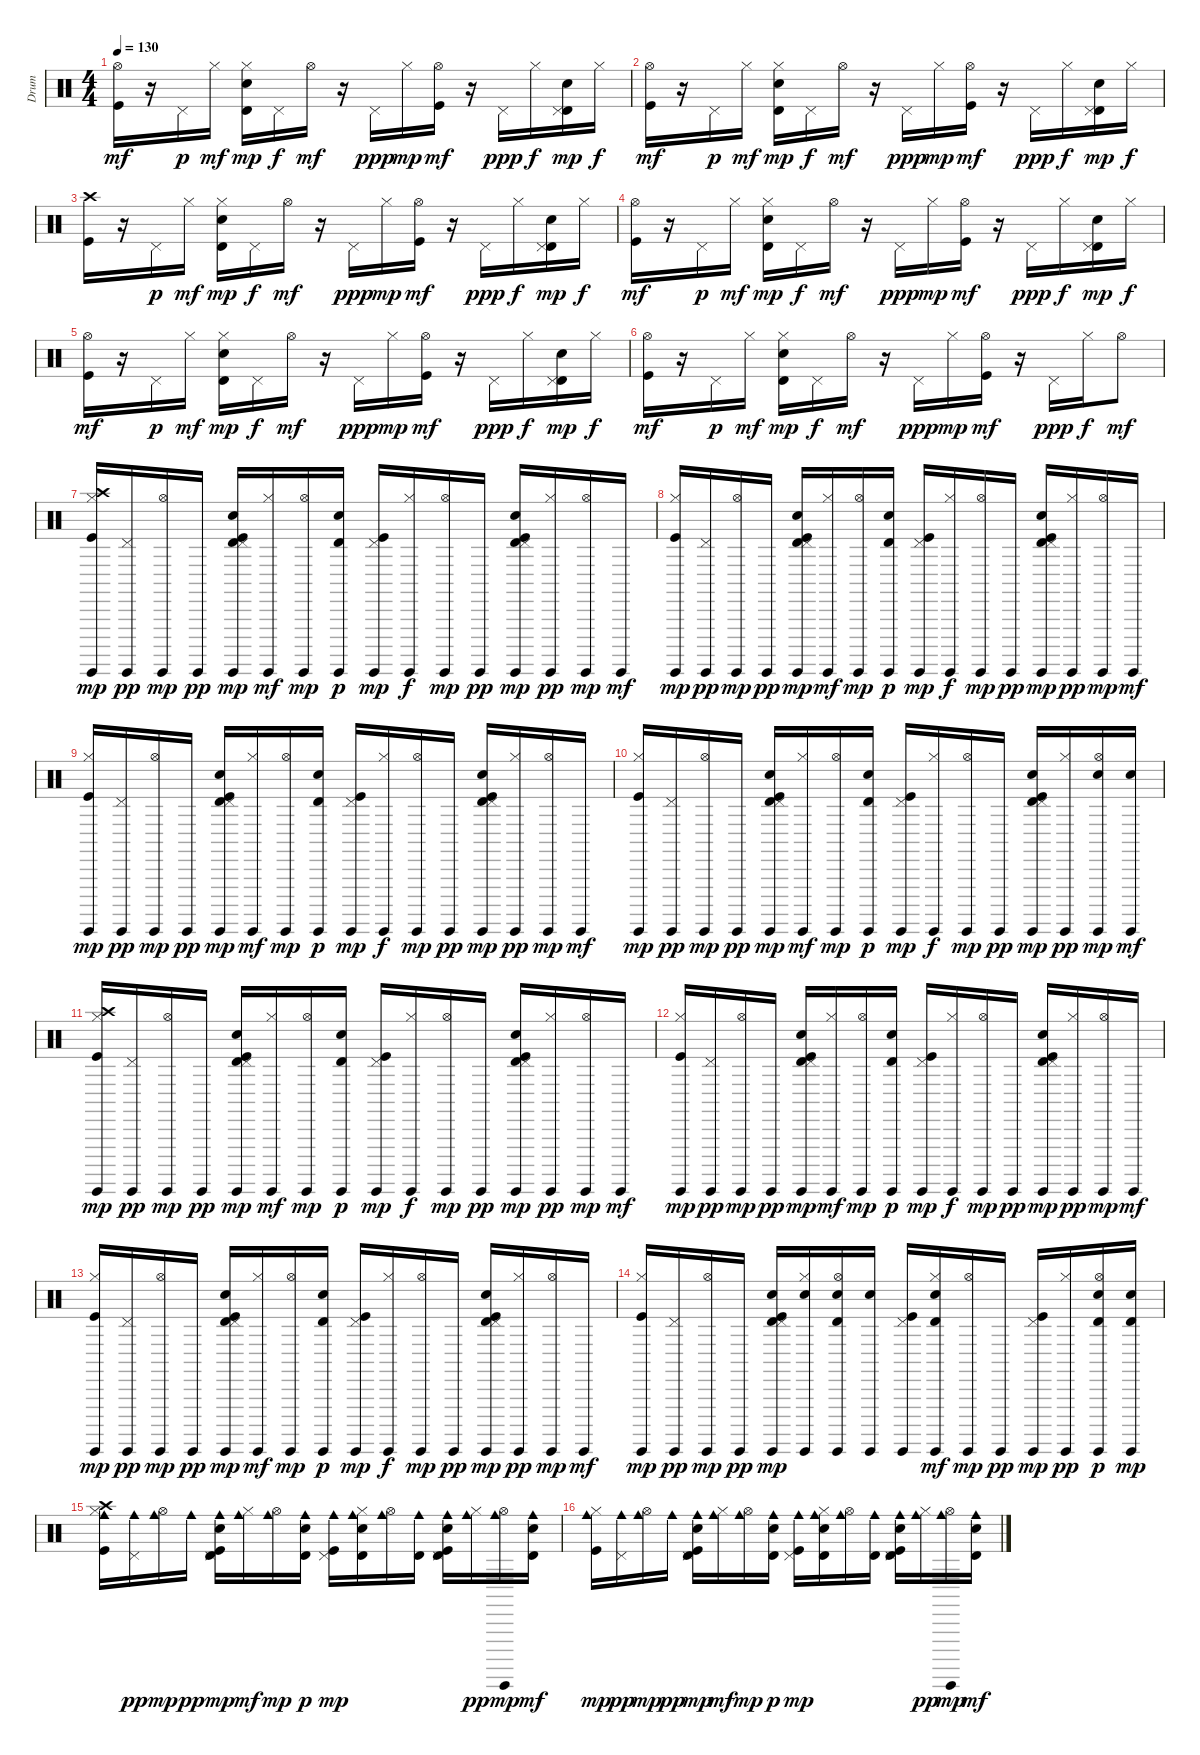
\track ("Drum" "Drum") {instrument percussion}
\staff {score}
\articulation defaults
\ts (4 4)
\tempo 130
\clef neutral
\ks c
("Hi-Hat (open)" "Kick (hit)").16{dy mf} r.16 "Pedal Hi-Hat (hit)".16{dy p} "Hi-Hat (closed)".16{dy mf} ("Timbale high (hit)" "Electric Snare (hit)" "Hi-Hat (closed)").16{dy mp} "Pedal Hi-Hat (hit)".16{dy f} "Hi-Hat (open)".16{dy mf} r.16 "Pedal Hi-Hat (hit)".16{dy ppp} "Hi-Hat (closed)".16{dy mp} ("Hi-Hat (open)" "Kick (hit)").16{dy mf} r.16 "Pedal Hi-Hat (hit)".16{dy ppp} "Hi-Hat (closed)".16{dy f} ("Timbale high (hit)" "Electric Snare (hit)" "Pedal Hi-Hat (hit)").16{dy mp} "Hi-Hat (closed)".16{dy f} |
("Hi-Hat (open)" "Kick (hit)").16{dy mf} r.16 "Pedal Hi-Hat (hit)".16{dy p} "Hi-Hat (closed)".16{dy mf} ("Timbale high (hit)" "Electric Snare (hit)" "Hi-Hat (closed)").16{dy mp} "Pedal Hi-Hat (hit)".16{dy f} "Hi-Hat (open)".16{dy mf} r.16 "Pedal Hi-Hat (hit)".16{dy ppp} "Hi-Hat (closed)".16{dy mp} ("Hi-Hat (open)" "Kick (hit)").16{dy mf} r.16 "Pedal Hi-Hat (hit)".16{dy ppp} "Hi-Hat (closed)".16{dy f} ("Timbale high (hit)" "Electric Snare (hit)" "Pedal Hi-Hat (hit)").16{dy mp} "Hi-Hat (closed)".16{dy f} |
("Crash high (hit)" "Kick (hit)").16 r.16 "Pedal Hi-Hat (hit)".16{dy p} "Hi-Hat (closed)".16{dy mf} ("Timbale high (hit)" "Electric Snare (hit)" "Hi-Hat (closed)").16{dy mp} "Pedal Hi-Hat (hit)".16{dy f} "Hi-Hat (open)".16{dy mf} r.16 "Pedal Hi-Hat (hit)".16{dy ppp} "Hi-Hat (closed)".16{dy mp} ("Hi-Hat (open)" "Kick (hit)").16{dy mf} r.16 "Pedal Hi-Hat (hit)".16{dy ppp} "Hi-Hat (closed)".16{dy f} ("Timbale high (hit)" "Electric Snare (hit)" "Pedal Hi-Hat (hit)").16{dy mp} "Hi-Hat (closed)".16{dy f} |
("Hi-Hat (open)" "Kick (hit)").16{dy mf} r.16 "Pedal Hi-Hat (hit)".16{dy p} "Hi-Hat (closed)".16{dy mf} ("Timbale high (hit)" "Electric Snare (hit)" "Hi-Hat (closed)").16{dy mp} "Pedal Hi-Hat (hit)".16{dy f} "Hi-Hat (open)".16{dy mf} r.16 "Pedal Hi-Hat (hit)".16{dy ppp} "Hi-Hat (closed)".16{dy mp} ("Hi-Hat (open)" "Kick (hit)").16{dy mf} r.16 "Pedal Hi-Hat (hit)".16{dy ppp} "Hi-Hat (closed)".16{dy f} ("Timbale high (hit)" "Electric Snare (hit)" "Pedal Hi-Hat (hit)").16{dy mp} "Hi-Hat (closed)".16{dy f} |
("Hi-Hat (open)" "Kick (hit)").16{dy mf} r.16 "Pedal Hi-Hat (hit)".16{dy p} "Hi-Hat (closed)".16{dy mf} ("Timbale high (hit)" "Electric Snare (hit)" "Hi-Hat (closed)").16{dy mp} "Pedal Hi-Hat (hit)".16{dy f} "Hi-Hat (open)".16{dy mf} r.16 "Pedal Hi-Hat (hit)".16{dy ppp} "Hi-Hat (closed)".16{dy mp} ("Hi-Hat (open)" "Kick (hit)").16{dy mf} r.16 "Pedal Hi-Hat (hit)".16{dy ppp} "Hi-Hat (closed)".16{dy f} ("Timbale high (hit)" "Electric Snare (hit)" "Pedal Hi-Hat (hit)").16{dy mp} "Hi-Hat (closed)".16{dy f} |
("Hi-Hat (open)" "Kick (hit)").16{dy mf} r.16 "Pedal Hi-Hat (hit)".16{dy p} "Hi-Hat (closed)".16{dy mf} ("Timbale high (hit)" "Electric Snare (hit)" "Hi-Hat (closed)").16{dy mp} "Pedal Hi-Hat (hit)".16{dy f} "Hi-Hat (open)".16{dy mf} r.16 "Pedal Hi-Hat (hit)".16{dy ppp} "Hi-Hat (closed)".16{dy mp} ("Hi-Hat (open)" "Kick (hit)").16{dy mf} r.16 "Pedal Hi-Hat (hit)".16{dy ppp} "Hi-Hat (closed)".16{dy f} "Hi-Hat (open)".8{dy mf} |
("Guiro (hit)" "Crash high (hit)" "Hi-Hat (closed)" "Kick (hit)").16{dy mp} ("Guiro (hit)" "Pedal Hi-Hat (hit)").16{dy pp} ("Guiro (hit)" "Hi-Hat (open)").16{dy mp} "Guiro (hit)".16{dy pp} ("Guiro (hit)" "Electric Snare (hit)" "Timbale high (hit)" "Pedal Hi-Hat (hit)" "Kick (hit)").16{dy mp} ("Guiro (hit)" "Hi-Hat (closed)").16{dy mf} ("Guiro (hit)" "Hi-Hat (open)").16{dy mp} ("Guiro (hit)" "Electric Snare (hit)" "Timbale high (hit)").16{dy p} ("Guiro (hit)" "Pedal Hi-Hat (hit)" "Kick (hit)").16{dy mp} ("Guiro (hit)" "Hi-Hat (closed)").16{dy f} ("Guiro (hit)" "Hi-Hat (open)").16{dy mp} "Guiro (hit)".16{dy pp} ("Guiro (hit)" "Electric Snare (hit)" "Timbale high (hit)" "Pedal Hi-Hat (hit)" "Kick (hit)").16{dy mp} ("Guiro (hit)" "Hi-Hat (closed)").16{dy pp} ("Guiro (hit)" "Hi-Hat (open)").16{dy mp} "Guiro (hit)".16{dy mf} |
("Guiro (hit)" "Hi-Hat (closed)" "Kick (hit)").16{dy mp} ("Guiro (hit)" "Pedal Hi-Hat (hit)").16{dy pp} ("Guiro (hit)" "Hi-Hat (open)").16{dy mp} "Guiro (hit)".16{dy pp} ("Guiro (hit)" "Electric Snare (hit)" "Timbale high (hit)" "Pedal Hi-Hat (hit)" "Kick (hit)").16{dy mp} ("Guiro (hit)" "Hi-Hat (closed)").16{dy mf} ("Guiro (hit)" "Hi-Hat (open)").16{dy mp} ("Guiro (hit)" "Electric Snare (hit)" "Timbale high (hit)").16{dy p} ("Guiro (hit)" "Pedal Hi-Hat (hit)" "Kick (hit)").16{dy mp} ("Guiro (hit)" "Hi-Hat (closed)").16{dy f} ("Guiro (hit)" "Hi-Hat (open)").16{dy mp} "Guiro (hit)".16{dy pp} ("Guiro (hit)" "Electric Snare (hit)" "Timbale high (hit)" "Pedal Hi-Hat (hit)" "Kick (hit)").16{dy mp} ("Guiro (hit)" "Hi-Hat (closed)").16{dy pp} ("Guiro (hit)" "Hi-Hat (open)").16{dy mp} "Guiro (hit)".16{dy mf} |
("Guiro (hit)" "Hi-Hat (closed)" "Kick (hit)").16{dy mp} ("Guiro (hit)" "Pedal Hi-Hat (hit)").16{dy pp} ("Guiro (hit)" "Hi-Hat (open)").16{dy mp} "Guiro (hit)".16{dy pp} ("Guiro (hit)" "Electric Snare (hit)" "Timbale high (hit)" "Pedal Hi-Hat (hit)" "Kick (hit)").16{dy mp} ("Guiro (hit)" "Hi-Hat (closed)").16{dy mf} ("Guiro (hit)" "Hi-Hat (open)").16{dy mp} ("Guiro (hit)" "Electric Snare (hit)" "Timbale high (hit)").16{dy p} ("Guiro (hit)" "Pedal Hi-Hat (hit)" "Kick (hit)").16{dy mp} ("Guiro (hit)" "Hi-Hat (closed)").16{dy f} ("Guiro (hit)" "Hi-Hat (open)").16{dy mp} "Guiro (hit)".16{dy pp} ("Guiro (hit)" "Electric Snare (hit)" "Timbale high (hit)" "Pedal Hi-Hat (hit)" "Kick (hit)").16{dy mp} ("Guiro (hit)" "Hi-Hat (closed)").16{dy pp} ("Guiro (hit)" "Hi-Hat (open)").16{dy mp} "Guiro (hit)".16{dy mf} |
("Guiro (hit)" "Hi-Hat (closed)" "Kick (hit)").16{dy mp} ("Guiro (hit)" "Pedal Hi-Hat (hit)").16{dy pp} ("Guiro (hit)" "Hi-Hat (open)").16{dy mp} "Guiro (hit)".16{dy pp} ("Guiro (hit)" "Electric Snare (hit)" "Timbale high (hit)" "Pedal Hi-Hat (hit)" "Kick (hit)").16{dy mp} ("Guiro (hit)" "Hi-Hat (closed)").16{dy mf} ("Guiro (hit)" "Hi-Hat (open)").16{dy mp} ("Guiro (hit)" "Electric Snare (hit)" "Timbale high (hit)").16{dy p} ("Guiro (hit)" "Pedal Hi-Hat (hit)" "Kick (hit)").16{dy mp} ("Guiro (hit)" "Hi-Hat (closed)").16{dy f} ("Guiro (hit)" "Hi-Hat (open)").16{dy mp} "Guiro (hit)".16{dy pp} ("Guiro (hit)" "Electric Snare (hit)" "Timbale high (hit)" "Pedal Hi-Hat (hit)" "Kick (hit)").16{dy mp} ("Guiro (hit)" "Hi-Hat (closed)").16{dy pp} ("Guiro (hit)" "Electric Snare (hit)" "Hi-Hat (open)").16{dy mp} ("Guiro (hit)" "Electric Snare (hit)").16{dy mf} |
("Guiro (hit)" "Crash high (hit)" "Hi-Hat (closed)" "Kick (hit)").16{dy mp} ("Guiro (hit)" "Pedal Hi-Hat (hit)").16{dy pp} ("Guiro (hit)" "Hi-Hat (open)").16{dy mp} "Guiro (hit)".16{dy pp} ("Guiro (hit)" "Electric Snare (hit)" "Timbale high (hit)" "Pedal Hi-Hat (hit)" "Kick (hit)").16{dy mp} ("Guiro (hit)" "Hi-Hat (closed)").16{dy mf} ("Guiro (hit)" "Hi-Hat (open)").16{dy mp} ("Guiro (hit)" "Electric Snare (hit)" "Timbale high (hit)").16{dy p} ("Guiro (hit)" "Pedal Hi-Hat (hit)" "Kick (hit)").16{dy mp} ("Guiro (hit)" "Hi-Hat (closed)").16{dy f} ("Guiro (hit)" "Hi-Hat (open)").16{dy mp} "Guiro (hit)".16{dy pp} ("Guiro (hit)" "Electric Snare (hit)" "Timbale high (hit)" "Pedal Hi-Hat (hit)" "Kick (hit)").16{dy mp} ("Guiro (hit)" "Hi-Hat (closed)").16{dy pp} ("Guiro (hit)" "Hi-Hat (open)").16{dy mp} "Guiro (hit)".16{dy mf} |
("Guiro (hit)" "Hi-Hat (closed)" "Kick (hit)").16{dy mp} ("Guiro (hit)" "Pedal Hi-Hat (hit)").16{dy pp} ("Guiro (hit)" "Hi-Hat (open)").16{dy mp} "Guiro (hit)".16{dy pp} ("Guiro (hit)" "Electric Snare (hit)" "Timbale high (hit)" "Pedal Hi-Hat (hit)" "Kick (hit)").16{dy mp} ("Guiro (hit)" "Hi-Hat (closed)").16{dy mf} ("Guiro (hit)" "Hi-Hat (open)").16{dy mp} ("Guiro (hit)" "Electric Snare (hit)" "Timbale high (hit)").16{dy p} ("Guiro (hit)" "Pedal Hi-Hat (hit)" "Kick (hit)").16{dy mp} ("Guiro (hit)" "Hi-Hat (closed)").16{dy f} ("Guiro (hit)" "Hi-Hat (open)").16{dy mp} "Guiro (hit)".16{dy pp} ("Guiro (hit)" "Electric Snare (hit)" "Timbale high (hit)" "Pedal Hi-Hat (hit)" "Kick (hit)").16{dy mp} ("Guiro (hit)" "Hi-Hat (closed)").16{dy pp} ("Guiro (hit)" "Hi-Hat (open)").16{dy mp} "Guiro (hit)".16{dy mf} |
("Guiro (hit)" "Hi-Hat (closed)" "Kick (hit)").16{dy mp} ("Guiro (hit)" "Pedal Hi-Hat (hit)").16{dy pp} ("Guiro (hit)" "Hi-Hat (open)").16{dy mp} "Guiro (hit)".16{dy pp} ("Guiro (hit)" "Electric Snare (hit)" "Timbale high (hit)" "Pedal Hi-Hat (hit)" "Kick (hit)").16{dy mp} ("Guiro (hit)" "Hi-Hat (closed)").16{dy mf} ("Guiro (hit)" "Hi-Hat (open)").16{dy mp} ("Guiro (hit)" "Electric Snare (hit)" "Timbale high (hit)").16{dy p} ("Guiro (hit)" "Pedal Hi-Hat (hit)" "Kick (hit)").16{dy mp} ("Guiro (hit)" "Hi-Hat (closed)").16{dy f} ("Guiro (hit)" "Hi-Hat (open)").16{dy mp} "Guiro (hit)".16{dy pp} ("Guiro (hit)" "Electric Snare (hit)" "Timbale high (hit)" "Pedal Hi-Hat (hit)" "Kick (hit)").16{dy mp} ("Guiro (hit)" "Hi-Hat (closed)").16{dy pp} ("Guiro (hit)" "Hi-Hat (open)").16{dy mp} "Guiro (hit)".16{dy mf} |
("Guiro (hit)" "Hi-Hat (closed)" "Kick (hit)").16{dy mp} ("Guiro (hit)" "Pedal Hi-Hat (hit)").16{dy pp} ("Guiro (hit)" "Hi-Hat (open)").16{dy mp} "Guiro (hit)".16{dy pp} ("Guiro (hit)" "Electric Snare (hit)" "Timbale high (hit)" "Pedal Hi-Hat (hit)" "Kick (hit)").16{dy mp} ("Guiro (hit)" "Electric Snare (hit)" "Hi-Hat (closed)").16 ("Guiro (hit)" "Electric Snare (hit)" "Timbale high (hit)" "Hi-Hat (open)").16 ("Guiro (hit)" "Electric Snare (hit)").16 ("Guiro (hit)" "Pedal Hi-Hat (hit)" "Kick (hit)").16 ("Guiro (hit)" "Electric Snare (hit)" "Timbale high (hit)" "Hi-Hat (closed)").16{dy mf} ("Guiro (hit)" "Hi-Hat (open)").16{dy mp} "Guiro (hit)".16{dy pp} ("Guiro (hit)" "Pedal Hi-Hat (hit)" "Kick (hit)").16{dy mp} ("Guiro (hit)" "Hi-Hat (closed)").16{dy pp} ("Guiro (hit)" "Electric Snare (hit)" "Timbale high (hit)" "Hi-Hat (open)").16{dy p} ("Guiro (hit)" "Electric Snare (hit)" "Timbale high (hit)").16{dy mp} |
("Crash high (hit)" "Cowbell medium (hit)" "Hi-Hat (closed)" "Kick (hit)").16 ("Cowbell medium (hit)" "Pedal Hi-Hat (hit)").16{dy pp} ("Cowbell medium (hit)" "Hi-Hat (open)").16{dy mp} "Cowbell medium (hit)".16{dy pp} ("Cowbell medium (hit)" "Electric Snare (hit)" "Timbale high (hit)" "Pedal Hi-Hat (hit)" "Kick (hit)").16{dy mp} ("Cowbell medium (hit)" "Hi-Hat (closed)").16{dy mf} ("Cowbell medium (hit)" "Hi-Hat (open)").16{dy mp} ("Cowbell medium (hit)" "Electric Snare (hit)" "Timbale high (hit)").16{dy p} ("Cowbell medium (hit)" "Pedal Hi-Hat (hit)" "Kick (hit)").16{dy mp} ("Cowbell medium (hit)" "Electric Snare (hit)" "Timbale high (hit)" "Hi-Hat (closed)").16 ("Cowbell medium (hit)" "Hi-Hat (open)").16 ("Cowbell medium (hit)" "Timbale high (hit)").16 ("Cowbell medium (hit)" "Electric Snare (hit)" "Timbale high (hit)" "Pedal Hi-Hat (hit)" "Kick (hit)").16 ("Cowbell medium (hit)" "Hi-Hat (closed)").16{dy pp} ("Cowbell medium (hit)" "Guiro (hit)" "Hi-Hat (open)").16{dy mp} ("Cowbell medium (hit)" "Electric Snare (hit)" "Timbale high (hit)").16{dy mf} |
("Cowbell medium (hit)" "Hi-Hat (closed)" "Kick (hit)").16{dy mp} ("Cowbell medium (hit)" "Pedal Hi-Hat (hit)").16{dy pp} ("Cowbell medium (hit)" "Hi-Hat (open)").16{dy mp} "Cowbell medium (hit)".16{dy pp} ("Cowbell medium (hit)" "Electric Snare (hit)" "Timbale high (hit)" "Pedal Hi-Hat (hit)" "Kick (hit)").16{dy mp} ("Cowbell medium (hit)" "Hi-Hat (closed)").16{dy mf} ("Cowbell medium (hit)" "Hi-Hat (open)").16{dy mp} ("Cowbell medium (hit)" "Electric Snare (hit)" "Timbale high (hit)").16{dy p} ("Cowbell medium (hit)" "Pedal Hi-Hat (hit)" "Kick (hit)").16{dy mp} ("Cowbell medium (hit)" "Electric Snare (hit)" "Timbale high (hit)" "Hi-Hat (closed)").16 ("Cowbell medium (hit)" "Hi-Hat (open)").16 ("Cowbell medium (hit)" "Timbale high (hit)").16 ("Cowbell medium (hit)" "Electric Snare (hit)" "Timbale high (hit)" "Pedal Hi-Hat (hit)" "Kick (hit)").16 ("Cowbell medium (hit)" "Hi-Hat (closed)").16{dy pp} ("Cowbell medium (hit)" "Guiro (hit)" "Hi-Hat (open)").16{dy mp} ("Cowbell medium (hit)" "Electric Snare (hit)" "Timbale high (hit)").16{dy mf}
